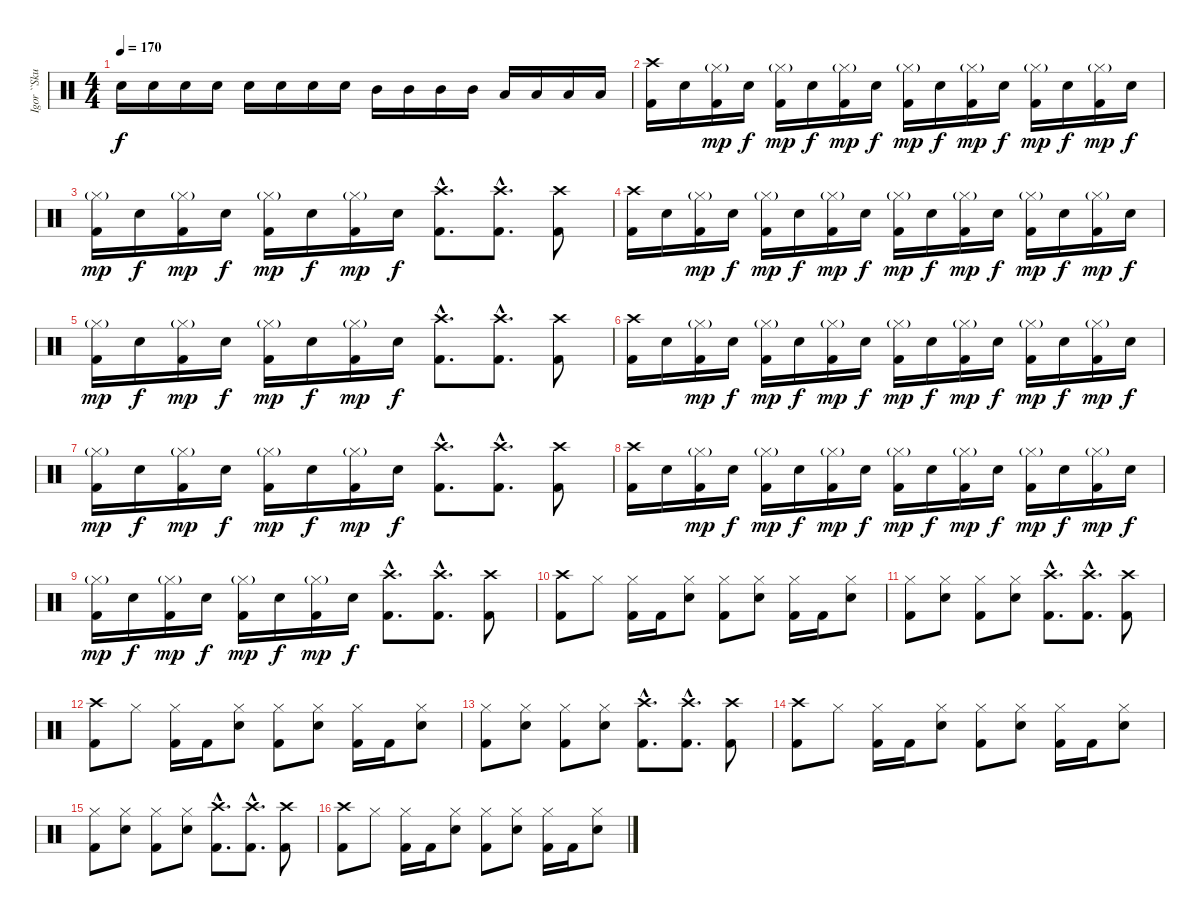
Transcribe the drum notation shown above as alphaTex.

\track ("Igor ``Skullcrusher`` Cavalera" "Igor ``Sku") {instrument percussion}
\staff {score}
\articulation defaults
\ts (4 4)
\tempo 170
\clef neutral
\ks c "Electric Snare (hit)".16{dy f} "Electric Snare (hit)".16 "Electric Snare (hit)".16 "Electric Snare (hit)".16 "Electric Snare (hit)".16 "Electric Snare (hit)".16 "Electric Snare (hit)".16 "Electric Snare (hit)".16 "Mid Tom (hit)".16 "Mid Tom (hit)".16 "Mid Tom (hit)".16 "Mid Tom (hit)".16 "Low Tom (hit)".16 "Low Tom (hit)".16 "Low Tom (hit)".16 "Low Tom (hit)".16
|
("Crash high (hit)" "Kick (hit) 2").16 "Electric Snare (hit)".16 ("Hi-Hat (closed)"{g} "Kick (hit) 2").16{dy mp} "Electric Snare (hit)".16{dy f} ("Hi-Hat (closed)"{g} "Kick (hit) 2").16{dy mp} "Electric Snare (hit)".16{dy f} ("Hi-Hat (closed)"{g} "Kick (hit) 2").16{dy mp} "Electric Snare (hit)".16{dy f} ("Hi-Hat (closed)"{g} "Kick (hit) 2").16{dy mp} "Electric Snare (hit)".16{dy f} ("Hi-Hat (closed)"{g} "Kick (hit) 2").16{dy mp} "Electric Snare (hit)".16{dy f} ("Hi-Hat (closed)"{g} "Kick (hit) 2").16{dy mp} "Electric Snare (hit)".16{dy f} ("Hi-Hat (closed)"{g} "Kick (hit) 2").16{dy mp} "Electric Snare (hit)".16{dy f} |
("Hi-Hat (closed)"{g} "Kick (hit) 2").16{dy mp} "Electric Snare (hit)".16{dy f} ("Hi-Hat (closed)"{g} "Kick (hit) 2").16{dy mp} "Electric Snare (hit)".16{dy f} ("Hi-Hat (closed)"{g} "Kick (hit) 2").16{dy mp} "Electric Snare (hit)".16{dy f} ("Hi-Hat (closed)"{g} "Kick (hit) 2").16{dy mp} "Electric Snare (hit)".16{dy f} ("Crash high (hit)"{hac} "Kick (hit) 2"{hac}).8{d} ("Crash high (hit)"{hac} "Kick (hit) 2"{hac}).8{d} ("Crash high (hit)" "Kick (hit) 2").8 |
("Crash high (hit)" "Kick (hit) 2").16 "Electric Snare (hit)".16 ("Hi-Hat (closed)"{g} "Kick (hit) 2").16{dy mp} "Electric Snare (hit)".16{dy f} ("Hi-Hat (closed)"{g} "Kick (hit) 2").16{dy mp} "Electric Snare (hit)".16{dy f} ("Hi-Hat (closed)"{g} "Kick (hit) 2").16{dy mp} "Electric Snare (hit)".16{dy f} ("Hi-Hat (closed)"{g} "Kick (hit) 2").16{dy mp} "Electric Snare (hit)".16{dy f} ("Hi-Hat (closed)"{g} "Kick (hit) 2").16{dy mp} "Electric Snare (hit)".16{dy f} ("Hi-Hat (closed)"{g} "Kick (hit) 2").16{dy mp} "Electric Snare (hit)".16{dy f} ("Hi-Hat (closed)"{g} "Kick (hit) 2").16{dy mp} "Electric Snare (hit)".16{dy f} |
("Hi-Hat (closed)"{g} "Kick (hit) 2").16{dy mp} "Electric Snare (hit)".16{dy f} ("Hi-Hat (closed)"{g} "Kick (hit) 2").16{dy mp} "Electric Snare (hit)".16{dy f} ("Hi-Hat (closed)"{g} "Kick (hit) 2").16{dy mp} "Electric Snare (hit)".16{dy f} ("Hi-Hat (closed)"{g} "Kick (hit) 2").16{dy mp} "Electric Snare (hit)".16{dy f} ("Crash high (hit)"{hac} "Kick (hit) 2"{hac}).8{d} ("Crash high (hit)"{hac} "Kick (hit) 2"{hac}).8{d} ("Crash high (hit)" "Kick (hit) 2").8 |
("Crash high (hit)" "Kick (hit) 2").16 "Electric Snare (hit)".16 ("Hi-Hat (closed)"{g} "Kick (hit) 2").16{dy mp} "Electric Snare (hit)".16{dy f} ("Hi-Hat (closed)"{g} "Kick (hit) 2").16{dy mp} "Electric Snare (hit)".16{dy f} ("Hi-Hat (closed)"{g} "Kick (hit) 2").16{dy mp} "Electric Snare (hit)".16{dy f} ("Hi-Hat (closed)"{g} "Kick (hit) 2").16{dy mp} "Electric Snare (hit)".16{dy f} ("Hi-Hat (closed)"{g} "Kick (hit) 2").16{dy mp} "Electric Snare (hit)".16{dy f} ("Hi-Hat (closed)"{g} "Kick (hit) 2").16{dy mp} "Electric Snare (hit)".16{dy f} ("Hi-Hat (closed)"{g} "Kick (hit) 2").16{dy mp} "Electric Snare (hit)".16{dy f} |
("Hi-Hat (closed)"{g} "Kick (hit) 2").16{dy mp} "Electric Snare (hit)".16{dy f} ("Hi-Hat (closed)"{g} "Kick (hit) 2").16{dy mp} "Electric Snare (hit)".16{dy f} ("Hi-Hat (closed)"{g} "Kick (hit) 2").16{dy mp} "Electric Snare (hit)".16{dy f} ("Hi-Hat (closed)"{g} "Kick (hit) 2").16{dy mp} "Electric Snare (hit)".16{dy f} ("Crash high (hit)"{hac} "Kick (hit) 2"{hac}).8{d} ("Crash high (hit)"{hac} "Kick (hit) 2"{hac}).8{d} ("Crash high (hit)" "Kick (hit) 2").8 |
("Crash high (hit)" "Kick (hit) 2").16 "Electric Snare (hit)".16 ("Hi-Hat (closed)"{g} "Kick (hit) 2").16{dy mp} "Electric Snare (hit)".16{dy f} ("Hi-Hat (closed)"{g} "Kick (hit) 2").16{dy mp} "Electric Snare (hit)".16{dy f} ("Hi-Hat (closed)"{g} "Kick (hit) 2").16{dy mp} "Electric Snare (hit)".16{dy f} ("Hi-Hat (closed)"{g} "Kick (hit) 2").16{dy mp} "Electric Snare (hit)".16{dy f} ("Hi-Hat (closed)"{g} "Kick (hit) 2").16{dy mp} "Electric Snare (hit)".16{dy f} ("Hi-Hat (closed)"{g} "Kick (hit) 2").16{dy mp} "Electric Snare (hit)".16{dy f} ("Hi-Hat (closed)"{g} "Kick (hit) 2").16{dy mp} "Electric Snare (hit)".16{dy f} |
("Hi-Hat (closed)"{g} "Kick (hit) 2").16{dy mp} "Electric Snare (hit)".16{dy f} ("Hi-Hat (closed)"{g} "Kick (hit) 2").16{dy mp} "Electric Snare (hit)".16{dy f} ("Hi-Hat (closed)"{g} "Kick (hit) 2").16{dy mp} "Electric Snare (hit)".16{dy f} ("Hi-Hat (closed)"{g} "Kick (hit) 2").16{dy mp} "Electric Snare (hit)".16{dy f} ("Crash high (hit)"{hac} "Kick (hit) 2"{hac}).8{d} ("Crash high (hit)"{hac} "Kick (hit) 2"{hac}).8{d} ("Crash high (hit)" "Kick (hit) 2").8 |
("Crash high (hit)" "Kick (hit) 2").8 "Hi-Hat (closed)".8 ("Hi-Hat (closed)" "Kick (hit) 2").16 "Kick (hit) 2".16 ("Hi-Hat (closed)" "Electric Snare (hit)").8 ("Hi-Hat (closed)" "Kick (hit) 2").8 ("Hi-Hat (closed)" "Electric Snare (hit)").8 ("Hi-Hat (closed)" "Kick (hit) 2").16 "Kick (hit) 2".16 ("Hi-Hat (closed)" "Electric Snare (hit)").8 |
("Hi-Hat (closed)" "Kick (hit) 2").8 ("Hi-Hat (closed)" "Electric Snare (hit)").8 ("Hi-Hat (closed)" "Kick (hit) 2").8 ("Hi-Hat (closed)" "Electric Snare (hit)").8 ("Crash high (hit)"{hac} "Kick (hit) 2"{hac}).8{d} ("Crash high (hit)"{hac} "Kick (hit) 2"{hac}).8{d} ("Crash high (hit)" "Kick (hit) 2").8 |
("Crash high (hit)" "Kick (hit) 2").8 "Hi-Hat (closed)".8 ("Hi-Hat (closed)" "Kick (hit) 2").16 "Kick (hit) 2".16 ("Hi-Hat (closed)" "Electric Snare (hit)").8 ("Hi-Hat (closed)" "Kick (hit) 2").8 ("Hi-Hat (closed)" "Electric Snare (hit)").8 ("Hi-Hat (closed)" "Kick (hit) 2").16 "Kick (hit) 2".16 ("Hi-Hat (closed)" "Electric Snare (hit)").8 |
("Hi-Hat (closed)" "Kick (hit) 2").8 ("Hi-Hat (closed)" "Electric Snare (hit)").8 ("Hi-Hat (closed)" "Kick (hit) 2").8 ("Hi-Hat (closed)" "Electric Snare (hit)").8 ("Crash high (hit)"{hac} "Kick (hit) 2"{hac}).8{d} ("Crash high (hit)"{hac} "Kick (hit) 2"{hac}).8{d} ("Crash high (hit)" "Kick (hit) 2").8 |
("Crash high (hit)" "Kick (hit) 2").8 "Hi-Hat (closed)".8 ("Hi-Hat (closed)" "Kick (hit) 2").16 "Kick (hit) 2".16 ("Hi-Hat (closed)" "Electric Snare (hit)").8 ("Hi-Hat (closed)" "Kick (hit) 2").8 ("Hi-Hat (closed)" "Electric Snare (hit)").8 ("Hi-Hat (closed)" "Kick (hit) 2").16 "Kick (hit) 2".16 ("Hi-Hat (closed)" "Electric Snare (hit)").8 |
("Hi-Hat (closed)" "Kick (hit) 2").8 ("Hi-Hat (closed)" "Electric Snare (hit)").8 ("Hi-Hat (closed)" "Kick (hit) 2").8 ("Hi-Hat (closed)" "Electric Snare (hit)").8 ("Crash high (hit)"{hac} "Kick (hit) 2"{hac}).8{d} ("Crash high (hit)"{hac} "Kick (hit) 2"{hac}).8{d} ("Crash high (hit)" "Kick (hit) 2").8 |
("Crash high (hit)" "Kick (hit) 2").8 "Hi-Hat (closed)".8 ("Hi-Hat (closed)" "Kick (hit) 2").16 "Kick (hit) 2".16 ("Hi-Hat (closed)" "Electric Snare (hit)").8 ("Hi-Hat (closed)" "Kick (hit) 2").8 ("Hi-Hat (closed)" "Electric Snare (hit)").8 ("Hi-Hat (closed)" "Kick (hit) 2").16 "Kick (hit) 2".16 ("Hi-Hat (closed)" "Electric Snare (hit)").8
